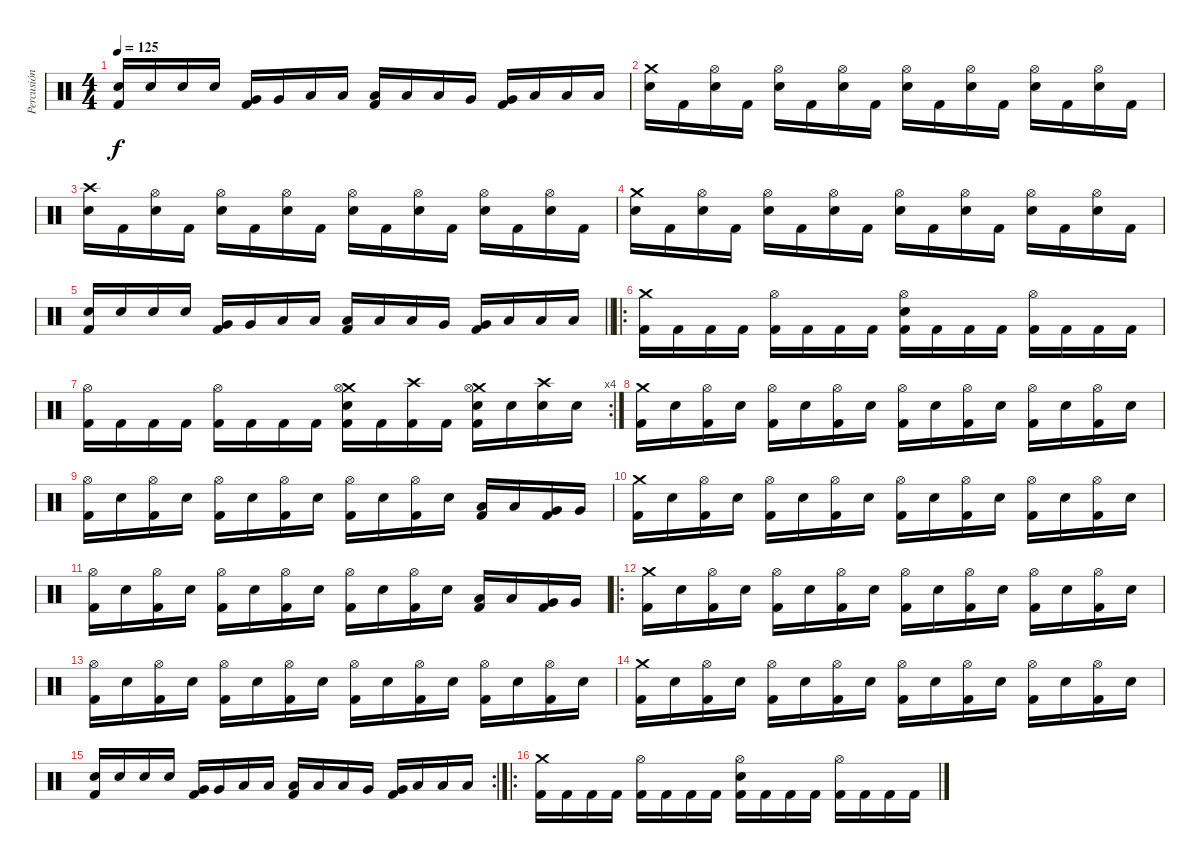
\track ("Percusión" "Percusión") {instrument percussion}
\staff {score}
\articulation defaults
\ts (4 4)
\tempo 125
\clef neutral
\ks c
("Electric Snare (hit)" "Kick (hit) 2").16{dy f} "Electric Snare (hit)".16 "Electric Snare (hit)".16 "Electric Snare (hit)".16 ("Very Low Tom (hit)" "Kick (hit) 2").16 "Very Low Tom (hit)".16 "Low Floor Tom (hit)".16 "Low Floor Tom (hit)".16 ("Low Tom (hit)" "Kick (hit) 2").16 "Low Tom (hit)".16 "Low Tom (hit)".16 "Very Low Tom (hit)".16 ("Very Low Tom (hit)" "Kick (hit) 2").16 "Low Floor Tom (hit)".16 "Low Floor Tom (hit)".16 "Low Floor Tom (hit)".16 |
("Crash medium (hit)" "Electric Snare (hit)").16 "Kick (hit) 2".16 ("Hi-Hat (open)" "Electric Snare (hit)").16 "Kick (hit) 2".16 ("Hi-Hat (open)" "Electric Snare (hit)").16 "Kick (hit) 2".16 ("Hi-Hat (open)" "Electric Snare (hit)").16 "Kick (hit) 2".16 ("Hi-Hat (open)" "Electric Snare (hit)").16 "Kick (hit) 2".16 ("Hi-Hat (open)" "Electric Snare (hit)").16 "Kick (hit) 2".16 ("Hi-Hat (open)" "Electric Snare (hit)").16 "Kick (hit) 2".16 ("Hi-Hat (open)" "Electric Snare (hit)").16 "Kick (hit) 2".16 |
("Crash high (hit)" "Electric Snare (hit)").16 "Kick (hit) 2".16 ("Hi-Hat (open)" "Electric Snare (hit)").16 "Kick (hit) 2".16 ("Hi-Hat (open)" "Electric Snare (hit)").16 "Kick (hit) 2".16 ("Hi-Hat (open)" "Electric Snare (hit)").16 "Kick (hit) 2".16 ("Hi-Hat (open)" "Electric Snare (hit)").16 "Kick (hit) 2".16 ("Hi-Hat (open)" "Electric Snare (hit)").16 "Kick (hit) 2".16 ("Hi-Hat (open)" "Electric Snare (hit)").16 "Kick (hit) 2".16 ("Hi-Hat (open)" "Electric Snare (hit)").16 "Kick (hit) 2".16 |
("Crash medium (hit)" "Electric Snare (hit)").16 "Kick (hit) 2".16 ("Hi-Hat (open)" "Electric Snare (hit)").16 "Kick (hit) 2".16 ("Hi-Hat (open)" "Electric Snare (hit)").16 "Kick (hit) 2".16 ("Hi-Hat (open)" "Electric Snare (hit)").16 "Kick (hit) 2".16 ("Hi-Hat (open)" "Electric Snare (hit)").16 "Kick (hit) 2".16 ("Hi-Hat (open)" "Electric Snare (hit)").16 "Kick (hit) 2".16 ("Hi-Hat (open)" "Electric Snare (hit)").16 "Kick (hit) 2".16 ("Hi-Hat (open)" "Electric Snare (hit)").16 "Kick (hit) 2".16 |
\barLineRight lightlight
("Electric Snare (hit)" "Kick (hit) 2").16 "Electric Snare (hit)".16 "Electric Snare (hit)".16 "Electric Snare (hit)".16 ("Very Low Tom (hit)" "Kick (hit) 2").16 "Very Low Tom (hit)".16 "Low Floor Tom (hit)".16 "Low Floor Tom (hit)".16 ("Low Tom (hit)" "Kick (hit) 2").16 "Low Tom (hit)".16 "Low Tom (hit)".16 "Very Low Tom (hit)".16 ("Very Low Tom (hit)" "Kick (hit) 2").16 "Low Floor Tom (hit)".16 "Low Floor Tom (hit)".16 "Low Floor Tom (hit)".16 |
\ro
("Crash medium (hit)" "Kick (hit) 2").16 "Kick (hit) 2".16 "Kick (hit) 2".16 "Kick (hit) 2".16 ("Hi-Hat (open)" "Kick (hit) 2").16 "Kick (hit) 2".16 "Kick (hit) 2".16 "Kick (hit) 2".16 ("Hi-Hat (open)" "Electric Snare (hit)" "Kick (hit) 2").16 "Kick (hit) 2".16 "Kick (hit) 2".16 "Kick (hit) 2".16 ("Hi-Hat (open)" "Kick (hit) 2").16 "Kick (hit) 2".16 "Kick (hit) 2".16 "Kick (hit) 2".16 |
\rc 4
("Hi-Hat (open)" "Kick (hit) 2").16 "Kick (hit) 2".16 "Kick (hit) 2".16 "Kick (hit) 2".16 ("Hi-Hat (open)" "Kick (hit) 2").16 "Kick (hit) 2".16 "Kick (hit) 2".16 "Kick (hit) 2".16 ("Crash medium (hit)" "Hi-Hat (open)" "Electric Snare (hit)" "Kick (hit) 2").16 "Kick (hit) 2".16 ("Crash high (hit)" "Kick (hit) 2").16 "Kick (hit) 2".16 ("Crash medium (hit)" "Hi-Hat (open)" "Electric Snare (hit)" "Kick (hit) 2").16 "Electric Snare (hit)".16 ("Crash high (hit)" "Electric Snare (hit)").16 "Electric Snare (hit)".16 |
("Crash medium (hit)" "Kick (hit) 2").16 "Electric Snare (hit)".16 ("Hi-Hat (open)" "Kick (hit) 2").16 "Electric Snare (hit)".16 ("Hi-Hat (open)" "Kick (hit) 2").16 "Electric Snare (hit)".16 ("Hi-Hat (open)" "Kick (hit) 2").16 "Electric Snare (hit)".16 ("Hi-Hat (open)" "Kick (hit) 2").16 "Electric Snare (hit)".16 ("Hi-Hat (open)" "Kick (hit) 2").16 "Electric Snare (hit)".16 ("Hi-Hat (open)" "Kick (hit) 2").16 "Electric Snare (hit)".16 ("Hi-Hat (open)" "Kick (hit) 2").16 "Electric Snare (hit)".16 |
("Hi-Hat (open)" "Kick (hit) 2").16 "Electric Snare (hit)".16 ("Hi-Hat (open)" "Kick (hit) 2").16 "Electric Snare (hit)".16 ("Hi-Hat (open)" "Kick (hit) 2").16 "Electric Snare (hit)".16 ("Hi-Hat (open)" "Kick (hit) 2").16 "Electric Snare (hit)".16 ("Hi-Hat (open)" "Kick (hit) 2").16 "Electric Snare (hit)".16 ("Hi-Hat (open)" "Kick (hit) 2").16 "Electric Snare (hit)".16 ("Low Tom (hit)" "Kick (hit) 2").16 "Low Tom (hit)".16 ("Very Low Tom (hit)" "Kick (hit) 2").16 "Very Low Tom (hit)".16 |
("Crash medium (hit)" "Kick (hit) 2").16 "Electric Snare (hit)".16 ("Hi-Hat (open)" "Kick (hit) 2").16 "Electric Snare (hit)".16 ("Hi-Hat (open)" "Kick (hit) 2").16 "Electric Snare (hit)".16 ("Hi-Hat (open)" "Kick (hit) 2").16 "Electric Snare (hit)".16 ("Hi-Hat (open)" "Kick (hit) 2").16 "Electric Snare (hit)".16 ("Hi-Hat (open)" "Kick (hit) 2").16 "Electric Snare (hit)".16 ("Hi-Hat (open)" "Kick (hit) 2").16 "Electric Snare (hit)".16 ("Hi-Hat (open)" "Kick (hit) 2").16 "Electric Snare (hit)".16 |
("Hi-Hat (open)" "Kick (hit) 2").16 "Electric Snare (hit)".16 ("Hi-Hat (open)" "Kick (hit) 2").16 "Electric Snare (hit)".16 ("Hi-Hat (open)" "Kick (hit) 2").16 "Electric Snare (hit)".16 ("Hi-Hat (open)" "Kick (hit) 2").16 "Electric Snare (hit)".16 ("Hi-Hat (open)" "Kick (hit) 2").16 "Electric Snare (hit)".16 ("Hi-Hat (open)" "Kick (hit) 2").16 "Electric Snare (hit)".16 ("Low Tom (hit)" "Kick (hit) 2").16 "Low Tom (hit)".16 ("Very Low Tom (hit)" "Kick (hit) 2").16 "Very Low Tom (hit)".16 |
\ro
("Crash medium (hit)" "Kick (hit) 2").16 "Electric Snare (hit)".16 ("Hi-Hat (open)" "Kick (hit) 2").16 "Electric Snare (hit)".16 ("Hi-Hat (open)" "Kick (hit) 2").16 "Electric Snare (hit)".16 ("Hi-Hat (open)" "Kick (hit) 2").16 "Electric Snare (hit)".16 ("Hi-Hat (open)" "Kick (hit) 2").16 "Electric Snare (hit)".16 ("Hi-Hat (open)" "Kick (hit) 2").16 "Electric Snare (hit)".16 ("Hi-Hat (open)" "Kick (hit) 2").16 "Electric Snare (hit)".16 ("Hi-Hat (open)" "Kick (hit) 2").16 "Electric Snare (hit)".16 |
("Hi-Hat (open)" "Kick (hit) 2").16 "Electric Snare (hit)".16 ("Hi-Hat (open)" "Kick (hit) 2").16 "Electric Snare (hit)".16 ("Hi-Hat (open)" "Kick (hit) 2").16 "Electric Snare (hit)".16 ("Hi-Hat (open)" "Kick (hit) 2").16 "Electric Snare (hit)".16 ("Hi-Hat (open)" "Kick (hit) 2").16 "Electric Snare (hit)".16 ("Hi-Hat (open)" "Kick (hit) 2").16 "Electric Snare (hit)".16 ("Hi-Hat (open)" "Kick (hit) 2").16 "Electric Snare (hit)".16 ("Hi-Hat (open)" "Kick (hit) 2").16 "Electric Snare (hit)".16 |
("Crash medium (hit)" "Kick (hit) 2").16 "Electric Snare (hit)".16 ("Hi-Hat (open)" "Kick (hit) 2").16 "Electric Snare (hit)".16 ("Hi-Hat (open)" "Kick (hit) 2").16 "Electric Snare (hit)".16 ("Hi-Hat (open)" "Kick (hit) 2").16 "Electric Snare (hit)".16 ("Hi-Hat (open)" "Kick (hit) 2").16 "Electric Snare (hit)".16 ("Hi-Hat (open)" "Kick (hit) 2").16 "Electric Snare (hit)".16 ("Hi-Hat (open)" "Kick (hit) 2").16 "Electric Snare (hit)".16 ("Hi-Hat (open)" "Kick (hit) 2").16 "Electric Snare (hit)".16 |
\rc 2
("Electric Snare (hit)" "Kick (hit) 2").16 "Electric Snare (hit)".16 "Electric Snare (hit)".16 "Electric Snare (hit)".16 ("Very Low Tom (hit)" "Kick (hit) 2").16 "Very Low Tom (hit)".16 "Low Floor Tom (hit)".16 "Low Floor Tom (hit)".16 ("Low Tom (hit)" "Kick (hit) 2").16 "Low Tom (hit)".16 "Low Tom (hit)".16 "Very Low Tom (hit)".16 ("Very Low Tom (hit)" "Kick (hit) 2").16 "Low Floor Tom (hit)".16 "Low Floor Tom (hit)".16 "Low Floor Tom (hit)".16 |
\ro
("Crash medium (hit)" "Kick (hit) 2").16 "Kick (hit) 2".16 "Kick (hit) 2".16 "Kick (hit) 2".16 ("Hi-Hat (open)" "Kick (hit) 2").16 "Kick (hit) 2".16 "Kick (hit) 2".16 "Kick (hit) 2".16 ("Hi-Hat (open)" "Electric Snare (hit)" "Kick (hit) 2").16 "Kick (hit) 2".16 "Kick (hit) 2".16 "Kick (hit) 2".16 ("Hi-Hat (open)" "Kick (hit) 2").16 "Kick (hit) 2".16 "Kick (hit) 2".16 "Kick (hit) 2".16
